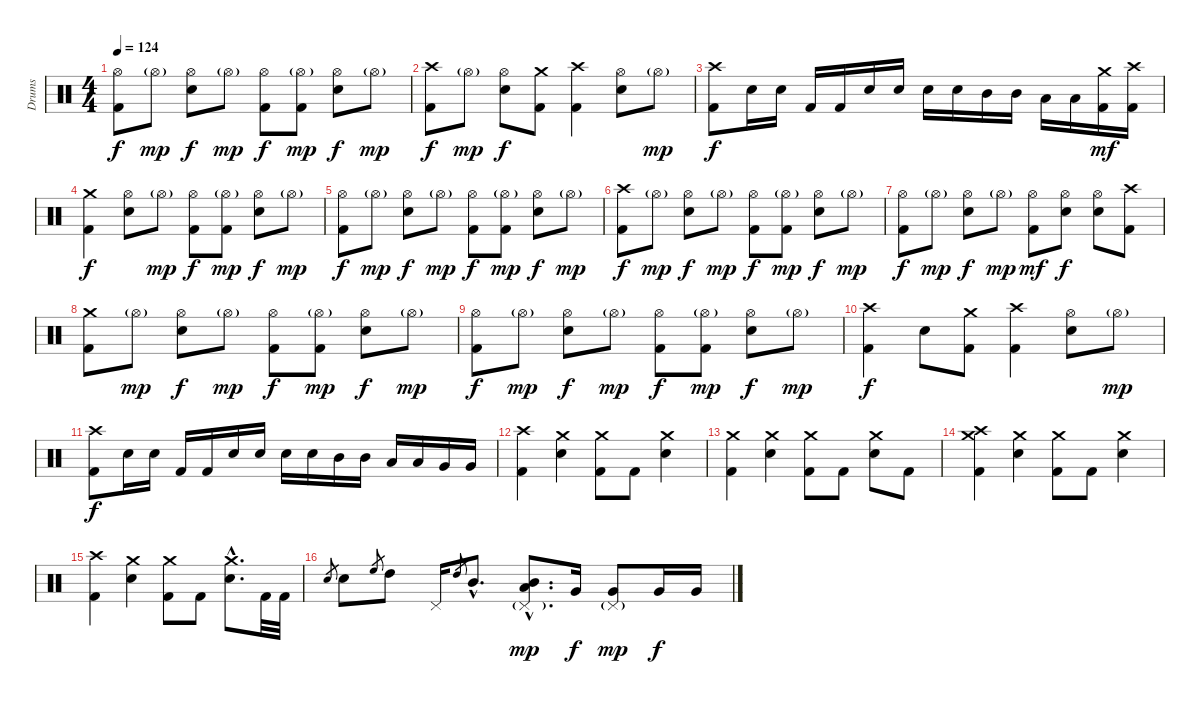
\track ("Drums" "Drums") {instrument percussion}
\staff {score}
\articulation defaults
\ts (4 4)
\tempo 124
\clef neutral
\ks c
("Hi-Hat (open)" "Kick (hit) 2").8{dy f} "Hi-Hat (open)"{g}.8{dy mp} ("Hi-Hat (open)" "Snare (hit) 2").8{dy f} "Hi-Hat (open)"{g}.8{dy mp} ("Hi-Hat (open)" "Kick (hit) 2").8{dy f} ("Hi-Hat (open)"{g} "Kick (hit) 2").8{dy mp} ("Hi-Hat (open)" "Snare (hit) 2").8{dy f} "Hi-Hat (open)"{g}.8{dy mp} |
("Crash high (hit)" "Kick (hit) 2").8{dy f} "Hi-Hat (open)"{g}.8{dy mp} ("Hi-Hat (open)" "Snare (hit) 2").8{dy f} ("Crash medium (hit)" "Kick (hit) 2").8 ("Crash high (hit)" "Kick (hit) 2").4 ("Hi-Hat (open)" "Snare (hit) 2").8 "Hi-Hat (open)"{g}.8{dy mp} |
("Crash high (hit)" "Kick (hit) 2").8{dy f} "Snare (hit) 2".16 "Snare (hit) 2".16 "Kick (hit) 2".16 "Kick (hit) 2".16 "Snare (hit) 2".16 "Snare (hit) 2".16 "Snare (hit) 2".16 "Snare (hit) 2".16 "Mid Tom (hit)".16 "Mid Tom (hit)".16 "Low Tom (hit)".16 "Low Tom (hit)".16 ("Crash medium (hit)" "Kick (hit) 2").16{dy mf} ("Crash high (hit)" "Kick (hit) 2").16 |
("Crash medium (hit)" "Kick (hit) 2").4{dy f} ("Hi-Hat (open)" "Snare (hit) 2").8 "Hi-Hat (open)"{g}.8{dy mp} ("Hi-Hat (open)" "Kick (hit) 2").8{dy f} ("Hi-Hat (open)"{g} "Kick (hit) 2").8{dy mp} ("Hi-Hat (open)" "Snare (hit) 2").8{dy f} "Hi-Hat (open)"{g}.8{dy mp} |
("Hi-Hat (open)" "Kick (hit) 2").8{dy f} "Hi-Hat (open)"{g}.8{dy mp} ("Hi-Hat (open)" "Snare (hit) 2").8{dy f} "Hi-Hat (open)"{g}.8{dy mp} ("Hi-Hat (open)" "Kick (hit) 2").8{dy f} ("Hi-Hat (open)"{g} "Kick (hit) 2").8{dy mp} ("Hi-Hat (open)" "Snare (hit) 2").8{dy f} "Hi-Hat (open)"{g}.8{dy mp} |
("Crash high (hit)" "Kick (hit) 2").8{dy f} "Hi-Hat (open)"{g}.8{dy mp} ("Hi-Hat (open)" "Snare (hit) 2").8{dy f} "Hi-Hat (open)"{g}.8{dy mp} ("Hi-Hat (open)" "Kick (hit) 2").8{dy f} ("Hi-Hat (open)"{g} "Kick (hit) 2").8{dy mp} ("Hi-Hat (open)" "Snare (hit) 2").8{dy f} "Hi-Hat (open)"{g}.8{dy mp} |
("Hi-Hat (open)" "Kick (hit) 2").8{dy f} "Hi-Hat (open)"{g}.8{dy mp} ("Hi-Hat (open)" "Snare (hit) 2").8{dy f} "Hi-Hat (open)"{g}.8{dy mp} ("Hi-Hat (open)" "Kick (hit) 2").8{dy mf} ("Hi-Hat (open)" "Snare (hit) 2").8{dy f} ("Hi-Hat (open)" "Snare (hit) 2").8 ("Crash high (hit)" "Kick (hit) 2").8 |
("Crash medium (hit)" "Kick (hit) 2").8 "Hi-Hat (open)"{g}.8{dy mp} ("Hi-Hat (open)" "Snare (hit) 2").8{dy f} "Hi-Hat (open)"{g}.8{dy mp} ("Hi-Hat (open)" "Kick (hit) 2").8{dy f} ("Hi-Hat (open)"{g} "Kick (hit) 2").8{dy mp} ("Hi-Hat (open)" "Snare (hit) 2").8{dy f} "Hi-Hat (open)"{g}.8{dy mp} |
("Hi-Hat (open)" "Kick (hit) 2").8{dy f} "Hi-Hat (open)"{g}.8{dy mp} ("Hi-Hat (open)" "Snare (hit) 2").8{dy f} "Hi-Hat (open)"{g}.8{dy mp} ("Hi-Hat (open)" "Kick (hit) 2").8{dy f} ("Hi-Hat (open)"{g} "Kick (hit) 2").8{dy mp} ("Hi-Hat (open)" "Snare (hit) 2").8{dy f} "Hi-Hat (open)"{g}.8{dy mp} |
("Crash high (hit)" "Kick (hit) 2").4{dy f} "Snare (hit) 2".8 ("Crash medium (hit)" "Kick (hit) 2").8 ("Crash high (hit)" "Kick (hit) 2").4 ("Hi-Hat (open)" "Snare (hit) 2").8 "Hi-Hat (open)"{g}.8{dy mp} |
("Crash high (hit)" "Kick (hit) 2").8{dy f} "Snare (hit) 2".16 "Snare (hit) 2".16 "Kick (hit) 2".16 "Kick (hit) 2".16 "Snare (hit) 2".16 "Snare (hit) 2".16 "Snare (hit) 2".16 "Snare (hit) 2".16 "Mid Tom (hit)".16 "Mid Tom (hit)".16 "Low Tom (hit)".16 "Low Tom (hit)".16 "Very Low Tom (hit)".16 "Very Low Tom (hit)".16 |
("Crash high (hit)" "Kick (hit) 2").4 ("Crash medium (hit)" "Snare (hit) 2").4 ("Crash medium (hit)" "Kick (hit) 2").8 "Kick (hit) 2".8 ("Crash medium (hit)" "Snare (hit) 2").4 |
("Crash medium (hit)" "Kick (hit) 2").4 ("Crash medium (hit)" "Snare (hit) 2").4 ("Crash medium (hit)" "Kick (hit) 2").8 "Kick (hit) 2".8 ("Crash medium (hit)" "Snare (hit) 2").8 "Kick (hit) 2".8 |
("Crash medium (hit)" "Crash high (hit)" "Kick (hit) 2").4 ("Crash medium (hit)" "Snare (hit) 2").4 ("Crash medium (hit)" "Kick (hit) 2").8 "Kick (hit) 2".8 ("Crash medium (hit)" "Snare (hit) 2").4 |
("Crash high (hit)" "Kick (hit) 2").4 ("Crash medium (hit)" "Snare (hit) 2").4 ("Crash medium (hit)" "Kick (hit) 2").8 "Kick (hit) 2".8 ("Crash medium (hit)"{hac} "Snare (hit) 2"{hac}).8{d} "Kick (hit) 2".32 "Kick (hit) 2".32 |
"Snare (hit) 2".8{gr} "Snare (hit) 2".8 "High Floor Tom (hit)".8{gr} "High Tom (hit)".8 "Pedal Hi-Hat (hit)".16 "High Tom (hit)".8{gr} "Mid Tom (hit)"{hac}.8{d} ("Mid Tom (hit)"{hac} "Low Tom (hit)"{hac} "Pedal Hi-Hat (hit)"{g hac}).8{d dy mp} "Very Low Tom (hit)".16{dy f} ("Very Low Tom (hit)" "Pedal Hi-Hat (hit)"{g}).8{dy mp} "Very Low Tom (hit)".16{dy f} "Very Low Tom (hit)".16
